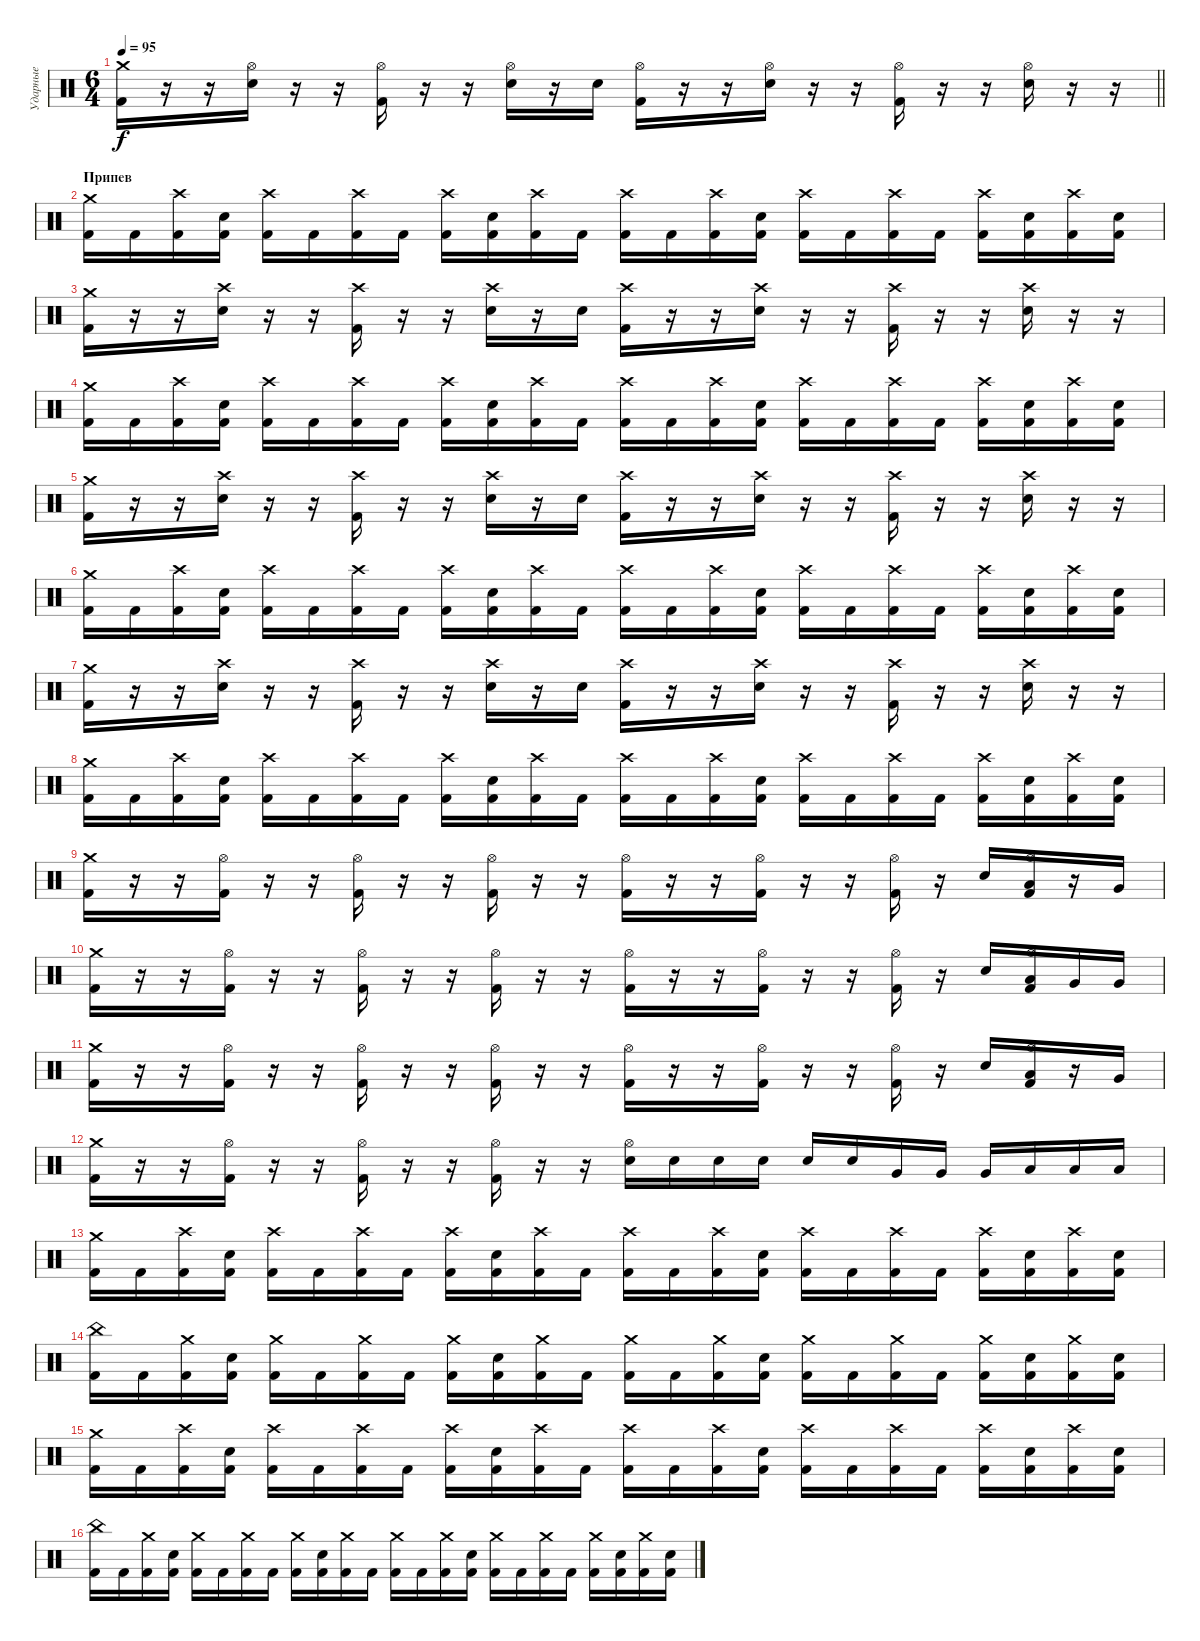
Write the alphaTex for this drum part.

\track ("Ударные" "Ударные") {instrument percussion}
\staff {score}
\articulation defaults
\ts (6 4)
\tempo 95
\clef neutral
\barLineRight lightlight
\ks c
("Crash medium (hit)" "Kick (hit) 2").16{dy f} r.16 r.16 ("Hi-Hat (open)" "Electric Snare (hit)").16 r.16 r.16 ("Hi-Hat (open)" "Kick (hit) 2").16 r.16 r.16 ("Hi-Hat (open)" "Electric Snare (hit)").16 r.16 "Electric Snare (hit)".16 ("Hi-Hat (open)" "Kick (hit) 2").16 r.16 r.16 ("Hi-Hat (open)" "Electric Snare (hit)").16 r.16 r.16 ("Hi-Hat (open)" "Kick (hit) 2").16 r.16 r.16 ("Hi-Hat (open)" "Electric Snare (hit)").16 r.16 r.16 |
\section ("" "Припев")
("Crash medium (hit)" "Kick (hit) 2").16 "Kick (hit) 2".16 ("Crash high (hit)" "Kick (hit) 2").16 ("Electric Snare (hit)" "Kick (hit) 2").16 ("Crash high (hit)" "Kick (hit) 2").16 "Kick (hit) 2".16 ("Crash high (hit)" "Kick (hit) 2").16 "Kick (hit) 2".16 ("Crash high (hit)" "Kick (hit) 2").16 ("Electric Snare (hit)" "Kick (hit) 2").16 ("Crash high (hit)" "Kick (hit) 2").16 "Kick (hit) 2".16 ("Crash high (hit)" "Kick (hit) 2").16 "Kick (hit) 2".16 ("Crash high (hit)" "Kick (hit) 2").16 ("Electric Snare (hit)" "Kick (hit) 2").16 ("Crash high (hit)" "Kick (hit) 2").16 "Kick (hit) 2".16 ("Crash high (hit)" "Kick (hit) 2").16 "Kick (hit) 2".16 ("Crash high (hit)" "Kick (hit) 2").16 ("Electric Snare (hit)" "Kick (hit) 2").16 ("Crash high (hit)" "Kick (hit) 2").16 ("Electric Snare (hit)" "Kick (hit) 2").16 |
("Crash medium (hit)" "Kick (hit) 2").16 r.16 r.16 ("Crash high (hit)" "Electric Snare (hit)").16 r.16 r.16 ("Crash high (hit)" "Kick (hit) 2").16 r.16 r.16 ("Crash high (hit)" "Electric Snare (hit)").16 r.16 "Electric Snare (hit)".16 ("Crash high (hit)" "Kick (hit) 2").16 r.16 r.16 ("Crash high (hit)" "Electric Snare (hit)").16 r.16 r.16 ("Crash high (hit)" "Kick (hit) 2").16 r.16 r.16 ("Crash high (hit)" "Electric Snare (hit)").16 r.16 r.16 |
("Crash medium (hit)" "Kick (hit) 2").16 "Kick (hit) 2".16 ("Crash high (hit)" "Kick (hit) 2").16 ("Electric Snare (hit)" "Kick (hit) 2").16 ("Crash high (hit)" "Kick (hit) 2").16 "Kick (hit) 2".16 ("Crash high (hit)" "Kick (hit) 2").16 "Kick (hit) 2".16 ("Crash high (hit)" "Kick (hit) 2").16 ("Electric Snare (hit)" "Kick (hit) 2").16 ("Crash high (hit)" "Kick (hit) 2").16 "Kick (hit) 2".16 ("Crash high (hit)" "Kick (hit) 2").16 "Kick (hit) 2".16 ("Crash high (hit)" "Kick (hit) 2").16 ("Electric Snare (hit)" "Kick (hit) 2").16 ("Crash high (hit)" "Kick (hit) 2").16 "Kick (hit) 2".16 ("Crash high (hit)" "Kick (hit) 2").16 "Kick (hit) 2".16 ("Crash high (hit)" "Kick (hit) 2").16 ("Electric Snare (hit)" "Kick (hit) 2").16 ("Crash high (hit)" "Kick (hit) 2").16 ("Electric Snare (hit)" "Kick (hit) 2").16 |
("Crash medium (hit)" "Kick (hit) 2").16 r.16 r.16 ("Crash high (hit)" "Electric Snare (hit)").16 r.16 r.16 ("Crash high (hit)" "Kick (hit) 2").16 r.16 r.16 ("Crash high (hit)" "Electric Snare (hit)").16 r.16 "Electric Snare (hit)".16 ("Crash high (hit)" "Kick (hit) 2").16 r.16 r.16 ("Crash high (hit)" "Electric Snare (hit)").16 r.16 r.16 ("Crash high (hit)" "Kick (hit) 2").16 r.16 r.16 ("Crash high (hit)" "Electric Snare (hit)").16 r.16 r.16 |
("Crash medium (hit)" "Kick (hit) 2").16 "Kick (hit) 2".16 ("Crash high (hit)" "Kick (hit) 2").16 ("Electric Snare (hit)" "Kick (hit) 2").16 ("Crash high (hit)" "Kick (hit) 2").16 "Kick (hit) 2".16 ("Crash high (hit)" "Kick (hit) 2").16 "Kick (hit) 2".16 ("Crash high (hit)" "Kick (hit) 2").16 ("Electric Snare (hit)" "Kick (hit) 2").16 ("Crash high (hit)" "Kick (hit) 2").16 "Kick (hit) 2".16 ("Crash high (hit)" "Kick (hit) 2").16 "Kick (hit) 2".16 ("Crash high (hit)" "Kick (hit) 2").16 ("Electric Snare (hit)" "Kick (hit) 2").16 ("Crash high (hit)" "Kick (hit) 2").16 "Kick (hit) 2".16 ("Crash high (hit)" "Kick (hit) 2").16 "Kick (hit) 2".16 ("Crash high (hit)" "Kick (hit) 2").16 ("Electric Snare (hit)" "Kick (hit) 2").16 ("Crash high (hit)" "Kick (hit) 2").16 ("Electric Snare (hit)" "Kick (hit) 2").16 |
("Crash medium (hit)" "Kick (hit) 2").16 r.16 r.16 ("Crash high (hit)" "Electric Snare (hit)").16 r.16 r.16 ("Crash high (hit)" "Kick (hit) 2").16 r.16 r.16 ("Crash high (hit)" "Electric Snare (hit)").16 r.16 "Electric Snare (hit)".16 ("Crash high (hit)" "Kick (hit) 2").16 r.16 r.16 ("Crash high (hit)" "Electric Snare (hit)").16 r.16 r.16 ("Crash high (hit)" "Kick (hit) 2").16 r.16 r.16 ("Crash high (hit)" "Electric Snare (hit)").16 r.16 r.16 |
("Crash medium (hit)" "Kick (hit) 2").16 "Kick (hit) 2".16 ("Crash high (hit)" "Kick (hit) 2").16 ("Electric Snare (hit)" "Kick (hit) 2").16 ("Crash high (hit)" "Kick (hit) 2").16 "Kick (hit) 2".16 ("Crash high (hit)" "Kick (hit) 2").16 "Kick (hit) 2".16 ("Crash high (hit)" "Kick (hit) 2").16 ("Electric Snare (hit)" "Kick (hit) 2").16 ("Crash high (hit)" "Kick (hit) 2").16 "Kick (hit) 2".16 ("Crash high (hit)" "Kick (hit) 2").16 "Kick (hit) 2".16 ("Crash high (hit)" "Kick (hit) 2").16 ("Electric Snare (hit)" "Kick (hit) 2").16 ("Crash high (hit)" "Kick (hit) 2").16 "Kick (hit) 2".16 ("Crash high (hit)" "Kick (hit) 2").16 "Kick (hit) 2".16 ("Crash high (hit)" "Kick (hit) 2").16 ("Electric Snare (hit)" "Kick (hit) 2").16 ("Crash high (hit)" "Kick (hit) 2").16 ("Electric Snare (hit)" "Kick (hit) 2").16 |
("Crash medium (hit)" "Kick (hit) 2").16 r.16 r.16 ("Hi-Hat (open)" "Kick (hit) 2").16 r.16 r.16 ("Hi-Hat (open)" "Kick (hit) 2").16 r.16 r.16 ("Hi-Hat (open)" "Kick (hit) 2").16 r.16 r.16 ("Hi-Hat (open)" "Kick (hit) 2").16 r.16 r.16 ("Hi-Hat (open)" "Kick (hit) 2").16 r.16 r.16 ("Hi-Hat (open)" "Kick (hit) 2").16 r.16 "Electric Snare (hit)".16 ("Low Floor Tom (hit)" "Hi-Hat (open)" "Kick (hit) 2").16 r.16 "Very Low Tom (hit)".16 |
("Crash medium (hit)" "Kick (hit) 2").16 r.16 r.16 ("Hi-Hat (open)" "Kick (hit) 2").16 r.16 r.16 ("Hi-Hat (open)" "Kick (hit) 2").16 r.16 r.16 ("Hi-Hat (open)" "Kick (hit) 2").16 r.16 r.16 ("Hi-Hat (open)" "Kick (hit) 2").16 r.16 r.16 ("Hi-Hat (open)" "Kick (hit) 2").16 r.16 r.16 ("Hi-Hat (open)" "Kick (hit) 2").16 r.16 "Electric Snare (hit)".16 ("Low Floor Tom (hit)" "Hi-Hat (open)" "Kick (hit) 2").16 "Very Low Tom (hit)".16 "Very Low Tom (hit)".16 |
("Crash medium (hit)" "Kick (hit) 2").16 r.16 r.16 ("Hi-Hat (open)" "Kick (hit) 2").16 r.16 r.16 ("Hi-Hat (open)" "Kick (hit) 2").16 r.16 r.16 ("Hi-Hat (open)" "Kick (hit) 2").16 r.16 r.16 ("Hi-Hat (open)" "Kick (hit) 2").16 r.16 r.16 ("Hi-Hat (open)" "Kick (hit) 2").16 r.16 r.16 ("Hi-Hat (open)" "Kick (hit) 2").16 r.16 "Electric Snare (hit)".16 ("Low Floor Tom (hit)" "Hi-Hat (open)" "Kick (hit) 2").16 r.16 "Very Low Tom (hit)".16 |
("Crash medium (hit)" "Kick (hit) 2").16 r.16 r.16 ("Hi-Hat (open)" "Kick (hit) 2").16 r.16 r.16 ("Hi-Hat (open)" "Kick (hit) 2").16 r.16 r.16 ("Hi-Hat (open)" "Kick (hit) 2").16 r.16 r.16 ("Hi-Hat (open)" "Electric Snare (hit)").16 "Electric Snare (hit)".16 "Electric Snare (hit)".16 "Electric Snare (hit)".16 "Electric Snare (hit)".16 "Electric Snare (hit)".16 "Very Low Tom (hit)".16 "Very Low Tom (hit)".16 "Very Low Tom (hit)".16 "Low Floor Tom (hit)".16 "Low Floor Tom (hit)".16 "Low Floor Tom (hit)".16 |
("Crash medium (hit)" "Kick (hit) 2").16 "Kick (hit) 2".16 ("Crash high (hit)" "Kick (hit) 2").16 ("Electric Snare (hit)" "Kick (hit) 2").16 ("Crash high (hit)" "Kick (hit) 2").16 "Kick (hit) 2".16 ("Crash high (hit)" "Kick (hit) 2").16 "Kick (hit) 2".16 ("Crash high (hit)" "Kick (hit) 2").16 ("Electric Snare (hit)" "Kick (hit) 2").16 ("Crash high (hit)" "Kick (hit) 2").16 "Kick (hit) 2".16 ("Crash high (hit)" "Kick (hit) 2").16 "Kick (hit) 2".16 ("Crash high (hit)" "Kick (hit) 2").16 ("Electric Snare (hit)" "Kick (hit) 2").16 ("Crash high (hit)" "Kick (hit) 2").16 "Kick (hit) 2".16 ("Crash high (hit)" "Kick (hit) 2").16 "Kick (hit) 2".16 ("Crash high (hit)" "Kick (hit) 2").16 ("Electric Snare (hit)" "Kick (hit) 2").16 ("Crash high (hit)" "Kick (hit) 2").16 ("Electric Snare (hit)" "Kick (hit) 2").16 |
("China (hit)" "Kick (hit) 2").16 "Kick (hit) 2".16 ("Crash medium (hit)" "Kick (hit) 2").16 ("Electric Snare (hit)" "Kick (hit) 2").16 ("Crash medium (hit)" "Kick (hit) 2").16 "Kick (hit) 2".16 ("Crash medium (hit)" "Kick (hit) 2").16 "Kick (hit) 2".16 ("Crash medium (hit)" "Kick (hit) 2").16 ("Electric Snare (hit)" "Kick (hit) 2").16 ("Crash medium (hit)" "Kick (hit) 2").16 "Kick (hit) 2".16 ("Crash medium (hit)" "Kick (hit) 2").16 "Kick (hit) 2".16 ("Crash medium (hit)" "Kick (hit) 2").16 ("Electric Snare (hit)" "Kick (hit) 2").16 ("Crash medium (hit)" "Kick (hit) 2").16 "Kick (hit) 2".16 ("Crash medium (hit)" "Kick (hit) 2").16 "Kick (hit) 2".16 ("Crash medium (hit)" "Kick (hit) 2").16 ("Electric Snare (hit)" "Kick (hit) 2").16 ("Crash medium (hit)" "Kick (hit) 2").16 ("Electric Snare (hit)" "Kick (hit) 2").16 |
("Crash medium (hit)" "Kick (hit) 2").16 "Kick (hit) 2".16 ("Crash high (hit)" "Kick (hit) 2").16 ("Electric Snare (hit)" "Kick (hit) 2").16 ("Crash high (hit)" "Kick (hit) 2").16 "Kick (hit) 2".16 ("Crash high (hit)" "Kick (hit) 2").16 "Kick (hit) 2".16 ("Crash high (hit)" "Kick (hit) 2").16 ("Electric Snare (hit)" "Kick (hit) 2").16 ("Crash high (hit)" "Kick (hit) 2").16 "Kick (hit) 2".16 ("Crash high (hit)" "Kick (hit) 2").16 "Kick (hit) 2".16 ("Crash high (hit)" "Kick (hit) 2").16 ("Electric Snare (hit)" "Kick (hit) 2").16 ("Crash high (hit)" "Kick (hit) 2").16 "Kick (hit) 2".16 ("Crash high (hit)" "Kick (hit) 2").16 "Kick (hit) 2".16 ("Crash high (hit)" "Kick (hit) 2").16 ("Electric Snare (hit)" "Kick (hit) 2").16 ("Crash high (hit)" "Kick (hit) 2").16 ("Electric Snare (hit)" "Kick (hit) 2").16 |
("China (hit)" "Kick (hit) 2").16 "Kick (hit) 2".16 ("Crash medium (hit)" "Kick (hit) 2").16 ("Electric Snare (hit)" "Kick (hit) 2").16 ("Crash medium (hit)" "Kick (hit) 2").16 "Kick (hit) 2".16 ("Crash medium (hit)" "Kick (hit) 2").16 "Kick (hit) 2".16 ("Crash medium (hit)" "Kick (hit) 2").16 ("Electric Snare (hit)" "Kick (hit) 2").16 ("Crash medium (hit)" "Kick (hit) 2").16 "Kick (hit) 2".16 ("Crash medium (hit)" "Kick (hit) 2").16 "Kick (hit) 2".16 ("Crash medium (hit)" "Kick (hit) 2").16 ("Electric Snare (hit)" "Kick (hit) 2").16 ("Crash medium (hit)" "Kick (hit) 2").16 "Kick (hit) 2".16 ("Crash medium (hit)" "Kick (hit) 2").16 "Kick (hit) 2".16 ("Crash medium (hit)" "Kick (hit) 2").16 ("Electric Snare (hit)" "Kick (hit) 2").16 ("Crash medium (hit)" "Kick (hit) 2").16 ("Electric Snare (hit)" "Kick (hit) 2").16
